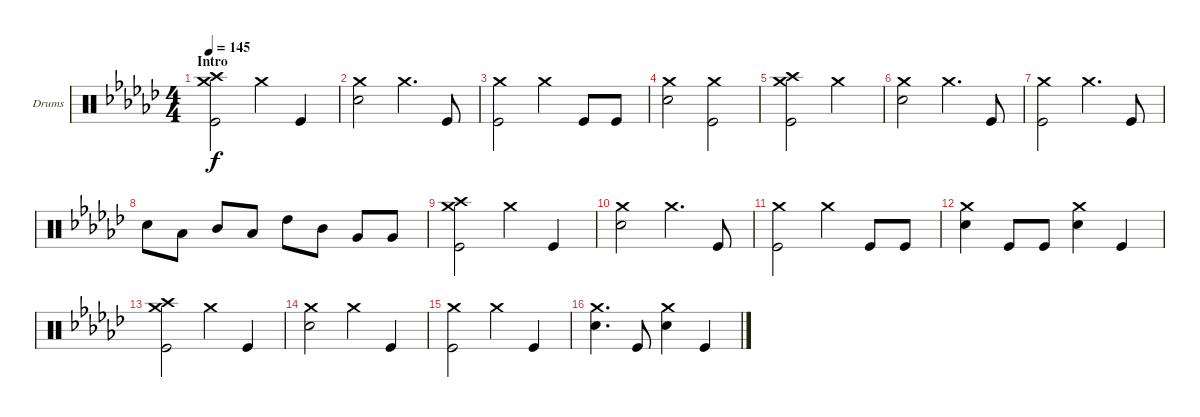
\defaultSystemsLayout 4
\bracketExtendMode groupsimilarinstruments
\firstSystemTrackNameOrientation horizontal
\otherSystemsTrackNameOrientation horizontal
\track ("Drumkit" "Drums") {instrument percussion}
\staff {score}
\articulation defaults
\ts (4 4)
\section ("" "Intro")
\tempo 145
\clef neutral
\scale
0.55814
\ks ebminor
("Kick (hit)" "Crash high (hit)" "Crash medium (hit)").2{dy f} "Crash medium (hit)".4 "Kick (hit)".4 |
\scale
0.22093 ("Snare (hit) 2" "Crash medium (hit)").2 "Crash medium (hit)".4{d} "Kick (hit)".8 |
\scale
0.22093 ("Kick (hit)" "Crash medium (hit)").2 "Crash medium (hit)".4 "Kick (hit)".8 "Kick (hit)".8 |
\scale
0.333333 ("Snare (hit) 2" "Crash medium (hit)").2 ("Crash medium (hit)" "Kick (hit)").2 |
\scale
0.333333 ("Crash high (hit)" "Crash medium (hit)" "Kick (hit)").2 "Crash medium (hit)".2 |
\scale
0.333333 ("Crash medium (hit)" "Snare (hit) 2").2 "Crash medium (hit)".4{d} "Kick (hit)".8 |
\scale
0.333333 ("Kick (hit)" "Crash medium (hit)").2 "Crash medium (hit)".4{d} "Kick (hit)".8 |
\scale
0.333333 "Snare (hit) 2".8 "Low Tom (hit)".8 "Mid Tom (hit)".8 "Low Tom (hit)".8 "High Tom (hit)".8 "Mid Tom (hit)".8 "Very Low Tom (hit)".8 "Very Low Tom (hit)".8 |
\scale
0.333333 ("Kick (hit)" "Crash high (hit)" "Crash medium (hit)").2 "Crash medium (hit)".4 "Kick (hit)".4 |
\scale
0.333333 ("Snare (hit) 2" "Crash medium (hit)").2 "Crash medium (hit)".4{d} "Kick (hit)".8 |
\scale
0.333333 ("Kick (hit)" "Crash medium (hit)").2 "Crash medium (hit)".4 "Kick (hit)".8 "Kick (hit)".8 |
\scale
0.333333 ("Snare (hit) 2" "Crash medium (hit)").4 "Kick (hit)".8 "Kick (hit)".8 ("Snare (hit) 2" "Crash medium (hit)").4 "Kick (hit)".4 |
\scale
0.333333 ("Crash high (hit)" "Crash medium (hit)" "Kick (hit)").2 "Crash medium (hit)".4 "Kick (hit)".4 |
\scale
0.333333 ("Crash medium (hit)" "Snare (hit) 2").2 "Crash medium (hit)".4 "Kick (hit)".4 |
\scale
0.333333 ("Kick (hit)" "Crash medium (hit)").2 "Crash medium (hit)".4 "Kick (hit)".4 |
\scale
0.333333 ("Snare (hit) 2" "Crash medium (hit)").4{d} "Kick (hit)".8 ("Snare (hit) 2" "Crash medium (hit)").4 "Kick (hit)".4
